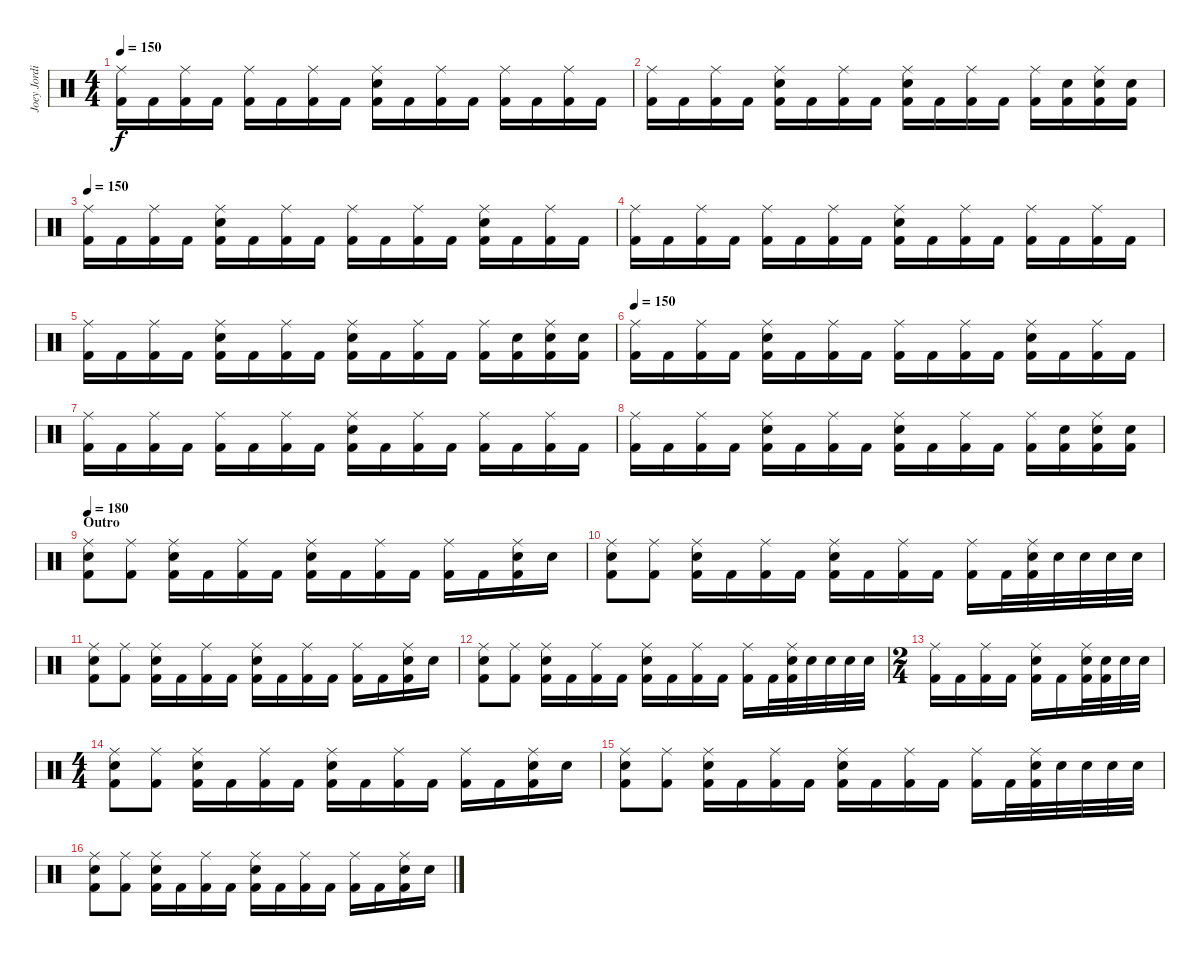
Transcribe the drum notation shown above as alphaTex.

\track ("Joey Jordison" "Joey Jordi") {instrument percussion}
\staff {score}
\articulation defaults
\ts (4 4)
\tempo 150
\clef neutral
\ks c
("Ride (middle)" "Kick (hit) 2").16{dy f} "Kick (hit) 2".16 ("Ride (middle)" "Kick (hit) 2").16 "Kick (hit) 2".16 ("Ride (middle)" "Kick (hit) 2").16 "Kick (hit) 2".16 ("Ride (middle)" "Kick (hit) 2").16 "Kick (hit) 2".16 ("Ride (middle)" "Electric Snare (hit)" "Kick (hit) 2").16 "Kick (hit) 2".16 ("Ride (middle)" "Kick (hit) 2").16 "Kick (hit) 2".16 ("Ride (middle)" "Kick (hit) 2").16 "Kick (hit) 2".16 ("Ride (middle)" "Kick (hit) 2").16 "Kick (hit) 2".16 |
("Ride (middle)" "Kick (hit) 2").16 "Kick (hit) 2".16 ("Ride (middle)" "Kick (hit) 2").16 "Kick (hit) 2".16 ("Ride (middle)" "Electric Snare (hit)" "Kick (hit) 2").16 "Kick (hit) 2".16 ("Ride (middle)" "Kick (hit) 2").16 "Kick (hit) 2".16 ("Ride (middle)" "Electric Snare (hit)" "Kick (hit) 2").16 "Kick (hit) 2".16 ("Ride (middle)" "Kick (hit) 2").16 "Kick (hit) 2".16 ("Ride (middle)" "Kick (hit) 2").16 ("Electric Snare (hit)" "Kick (hit) 2").16 ("Ride (middle)" "Electric Snare (hit)" "Kick (hit) 2").16 ("Electric Snare (hit)" "Kick (hit) 2").16 |
\tempo 150
("Ride (middle)" "Kick (hit) 2").16 "Kick (hit) 2".16 ("Ride (middle)" "Kick (hit) 2").16 "Kick (hit) 2".16 ("Ride (middle)" "Electric Snare (hit)" "Kick (hit) 2").16 "Kick (hit) 2".16 ("Ride (middle)" "Kick (hit) 2").16 "Kick (hit) 2".16 ("Ride (middle)" "Kick (hit) 2").16 "Kick (hit) 2".16 ("Ride (middle)" "Kick (hit) 2").16 "Kick (hit) 2".16 ("Ride (middle)" "Electric Snare (hit)" "Kick (hit) 2").16 "Kick (hit) 2".16 ("Ride (middle)" "Kick (hit) 2").16 "Kick (hit) 2".16 |
("Ride (middle)" "Kick (hit) 2").16 "Kick (hit) 2".16 ("Ride (middle)" "Kick (hit) 2").16 "Kick (hit) 2".16 ("Ride (middle)" "Kick (hit) 2").16 "Kick (hit) 2".16 ("Ride (middle)" "Kick (hit) 2").16 "Kick (hit) 2".16 ("Ride (middle)" "Electric Snare (hit)" "Kick (hit) 2").16 "Kick (hit) 2".16 ("Ride (middle)" "Kick (hit) 2").16 "Kick (hit) 2".16 ("Ride (middle)" "Kick (hit) 2").16 "Kick (hit) 2".16 ("Ride (middle)" "Kick (hit) 2").16 "Kick (hit) 2".16 |
("Ride (middle)" "Kick (hit) 2").16 "Kick (hit) 2".16 ("Ride (middle)" "Kick (hit) 2").16 "Kick (hit) 2".16 ("Ride (middle)" "Electric Snare (hit)" "Kick (hit) 2").16 "Kick (hit) 2".16 ("Ride (middle)" "Kick (hit) 2").16 "Kick (hit) 2".16 ("Ride (middle)" "Electric Snare (hit)" "Kick (hit) 2").16 "Kick (hit) 2".16 ("Ride (middle)" "Kick (hit) 2").16 "Kick (hit) 2".16 ("Ride (middle)" "Kick (hit) 2").16 ("Electric Snare (hit)" "Kick (hit) 2").16 ("Ride (middle)" "Electric Snare (hit)" "Kick (hit) 2").16 ("Electric Snare (hit)" "Kick (hit) 2").16 |
\tempo 150
("Ride (middle)" "Kick (hit) 2").16 "Kick (hit) 2".16 ("Ride (middle)" "Kick (hit) 2").16 "Kick (hit) 2".16 ("Ride (middle)" "Electric Snare (hit)" "Kick (hit) 2").16 "Kick (hit) 2".16 ("Ride (middle)" "Kick (hit) 2").16 "Kick (hit) 2".16 ("Ride (middle)" "Kick (hit) 2").16 "Kick (hit) 2".16 ("Ride (middle)" "Kick (hit) 2").16 "Kick (hit) 2".16 ("Ride (middle)" "Electric Snare (hit)" "Kick (hit) 2").16 "Kick (hit) 2".16 ("Ride (middle)" "Kick (hit) 2").16 "Kick (hit) 2".16 |
("Ride (middle)" "Kick (hit) 2").16 "Kick (hit) 2".16 ("Ride (middle)" "Kick (hit) 2").16 "Kick (hit) 2".16 ("Ride (middle)" "Kick (hit) 2").16 "Kick (hit) 2".16 ("Ride (middle)" "Kick (hit) 2").16 "Kick (hit) 2".16 ("Ride (middle)" "Electric Snare (hit)" "Kick (hit) 2").16 "Kick (hit) 2".16 ("Ride (middle)" "Kick (hit) 2").16 "Kick (hit) 2".16 ("Ride (middle)" "Kick (hit) 2").16 "Kick (hit) 2".16 ("Ride (middle)" "Kick (hit) 2").16 "Kick (hit) 2".16 |
("Ride (middle)" "Kick (hit) 2").16 "Kick (hit) 2".16 ("Ride (middle)" "Kick (hit) 2").16 "Kick (hit) 2".16 ("Ride (middle)" "Electric Snare (hit)" "Kick (hit) 2").16 "Kick (hit) 2".16 ("Ride (middle)" "Kick (hit) 2").16 "Kick (hit) 2".16 ("Ride (middle)" "Electric Snare (hit)" "Kick (hit) 2").16 "Kick (hit) 2".16 ("Ride (middle)" "Kick (hit) 2").16 "Kick (hit) 2".16 ("Ride (middle)" "Kick (hit) 2").16 ("Electric Snare (hit)" "Kick (hit) 2").16 ("Ride (middle)" "Electric Snare (hit)" "Kick (hit) 2").16 ("Electric Snare (hit)" "Kick (hit) 2").16 |
\section ("" "Outro")
\tempo 180
("Ride (middle)" "Kick (hit) 2" "Electric Snare (hit)").8 ("Ride (middle)" "Kick (hit) 2").8 ("Ride (middle)" "Electric Snare (hit)" "Kick (hit) 2").16 "Kick (hit) 2".16 ("Ride (middle)" "Kick (hit) 2").16 "Kick (hit) 2".16 ("Ride (middle)" "Kick (hit) 2" "Electric Snare (hit)").16 "Kick (hit) 2".16 ("Ride (middle)" "Kick (hit) 2").16 "Kick (hit) 2".16 ("Ride (middle)" "Kick (hit) 2").16 "Kick (hit) 2".16 ("Ride (middle)" "Kick (hit) 2" "Electric Snare (hit)").16 "Electric Snare (hit)".16 |
("Ride (middle)" "Kick (hit) 2" "Electric Snare (hit)").8 ("Ride (middle)" "Kick (hit) 2").8 ("Ride (middle)" "Electric Snare (hit)" "Kick (hit) 2").16 "Kick (hit) 2".16 ("Ride (middle)" "Kick (hit) 2").16 "Kick (hit) 2".16 ("Ride (middle)" "Kick (hit) 2" "Electric Snare (hit)").16 "Kick (hit) 2".16 ("Ride (middle)" "Kick (hit) 2").16 "Kick (hit) 2".16 ("Ride (middle)" "Kick (hit) 2").16 "Kick (hit) 2".32 ("Ride (middle)" "Kick (hit) 2" "Electric Snare (hit)").32 "Electric Snare (hit)".32 "Electric Snare (hit)".32 "Electric Snare (hit)".32 "Electric Snare (hit)".32 |
("Ride (middle)" "Kick (hit) 2" "Electric Snare (hit)").8 ("Ride (middle)" "Kick (hit) 2").8 ("Ride (middle)" "Electric Snare (hit)" "Kick (hit) 2").16 "Kick (hit) 2".16 ("Ride (middle)" "Kick (hit) 2").16 "Kick (hit) 2".16 ("Ride (middle)" "Kick (hit) 2" "Electric Snare (hit)").16 "Kick (hit) 2".16 ("Ride (middle)" "Kick (hit) 2").16 "Kick (hit) 2".16 ("Ride (middle)" "Kick (hit) 2").16 "Kick (hit) 2".16 ("Ride (middle)" "Kick (hit) 2" "Electric Snare (hit)").16 "Electric Snare (hit)".16 |
("Ride (middle)" "Kick (hit) 2" "Electric Snare (hit)").8 ("Ride (middle)" "Kick (hit) 2").8 ("Ride (middle)" "Electric Snare (hit)" "Kick (hit) 2").16 "Kick (hit) 2".16 ("Ride (middle)" "Kick (hit) 2").16 "Kick (hit) 2".16 ("Ride (middle)" "Kick (hit) 2" "Electric Snare (hit)").16 "Kick (hit) 2".16 ("Ride (middle)" "Kick (hit) 2").16 "Kick (hit) 2".16 ("Ride (middle)" "Kick (hit) 2").16 "Kick (hit) 2".32 ("Ride (middle)" "Kick (hit) 2" "Electric Snare (hit)").32 "Electric Snare (hit)".32 "Electric Snare (hit)".32 "Electric Snare (hit)".32 "Electric Snare (hit)".32 |
\ts (2 4)
("Ride (middle)" "Kick (hit) 2").16 "Kick (hit) 2".16 ("Ride (middle)" "Kick (hit) 2").16 "Kick (hit) 2".16 ("Ride (middle)" "Electric Snare (hit)" "Kick (hit) 2").16 "Kick (hit) 2".16 ("Ride (middle)" "Electric Snare (hit)" "Kick (hit) 2").32 ("Electric Snare (hit)" "Kick (hit) 2").32 "Electric Snare (hit)".32 "Electric Snare (hit)".32 |
\ts (4 4)
("Ride (middle)" "Kick (hit) 2" "Electric Snare (hit)").8 ("Ride (middle)" "Kick (hit) 2").8 ("Ride (middle)" "Electric Snare (hit)" "Kick (hit) 2").16 "Kick (hit) 2".16 ("Ride (middle)" "Kick (hit) 2").16 "Kick (hit) 2".16 ("Ride (middle)" "Kick (hit) 2" "Electric Snare (hit)").16 "Kick (hit) 2".16 ("Ride (middle)" "Kick (hit) 2").16 "Kick (hit) 2".16 ("Ride (middle)" "Kick (hit) 2").16 "Kick (hit) 2".16 ("Ride (middle)" "Kick (hit) 2" "Electric Snare (hit)").16 "Electric Snare (hit)".16 |
("Ride (middle)" "Kick (hit) 2" "Electric Snare (hit)").8 ("Ride (middle)" "Kick (hit) 2").8 ("Ride (middle)" "Electric Snare (hit)" "Kick (hit) 2").16 "Kick (hit) 2".16 ("Ride (middle)" "Kick (hit) 2").16 "Kick (hit) 2".16 ("Ride (middle)" "Kick (hit) 2" "Electric Snare (hit)").16 "Kick (hit) 2".16 ("Ride (middle)" "Kick (hit) 2").16 "Kick (hit) 2".16 ("Ride (middle)" "Kick (hit) 2").16 "Kick (hit) 2".32 ("Ride (middle)" "Kick (hit) 2" "Electric Snare (hit)").32 "Electric Snare (hit)".32 "Electric Snare (hit)".32 "Electric Snare (hit)".32 "Electric Snare (hit)".32 |
("Ride (middle)" "Kick (hit) 2" "Electric Snare (hit)").8 ("Ride (middle)" "Kick (hit) 2").8 ("Ride (middle)" "Electric Snare (hit)" "Kick (hit) 2").16 "Kick (hit) 2".16 ("Ride (middle)" "Kick (hit) 2").16 "Kick (hit) 2".16 ("Ride (middle)" "Kick (hit) 2" "Electric Snare (hit)").16 "Kick (hit) 2".16 ("Ride (middle)" "Kick (hit) 2").16 "Kick (hit) 2".16 ("Ride (middle)" "Kick (hit) 2").16 "Kick (hit) 2".16 ("Ride (middle)" "Kick (hit) 2" "Electric Snare (hit)").16 "Electric Snare (hit)".16
